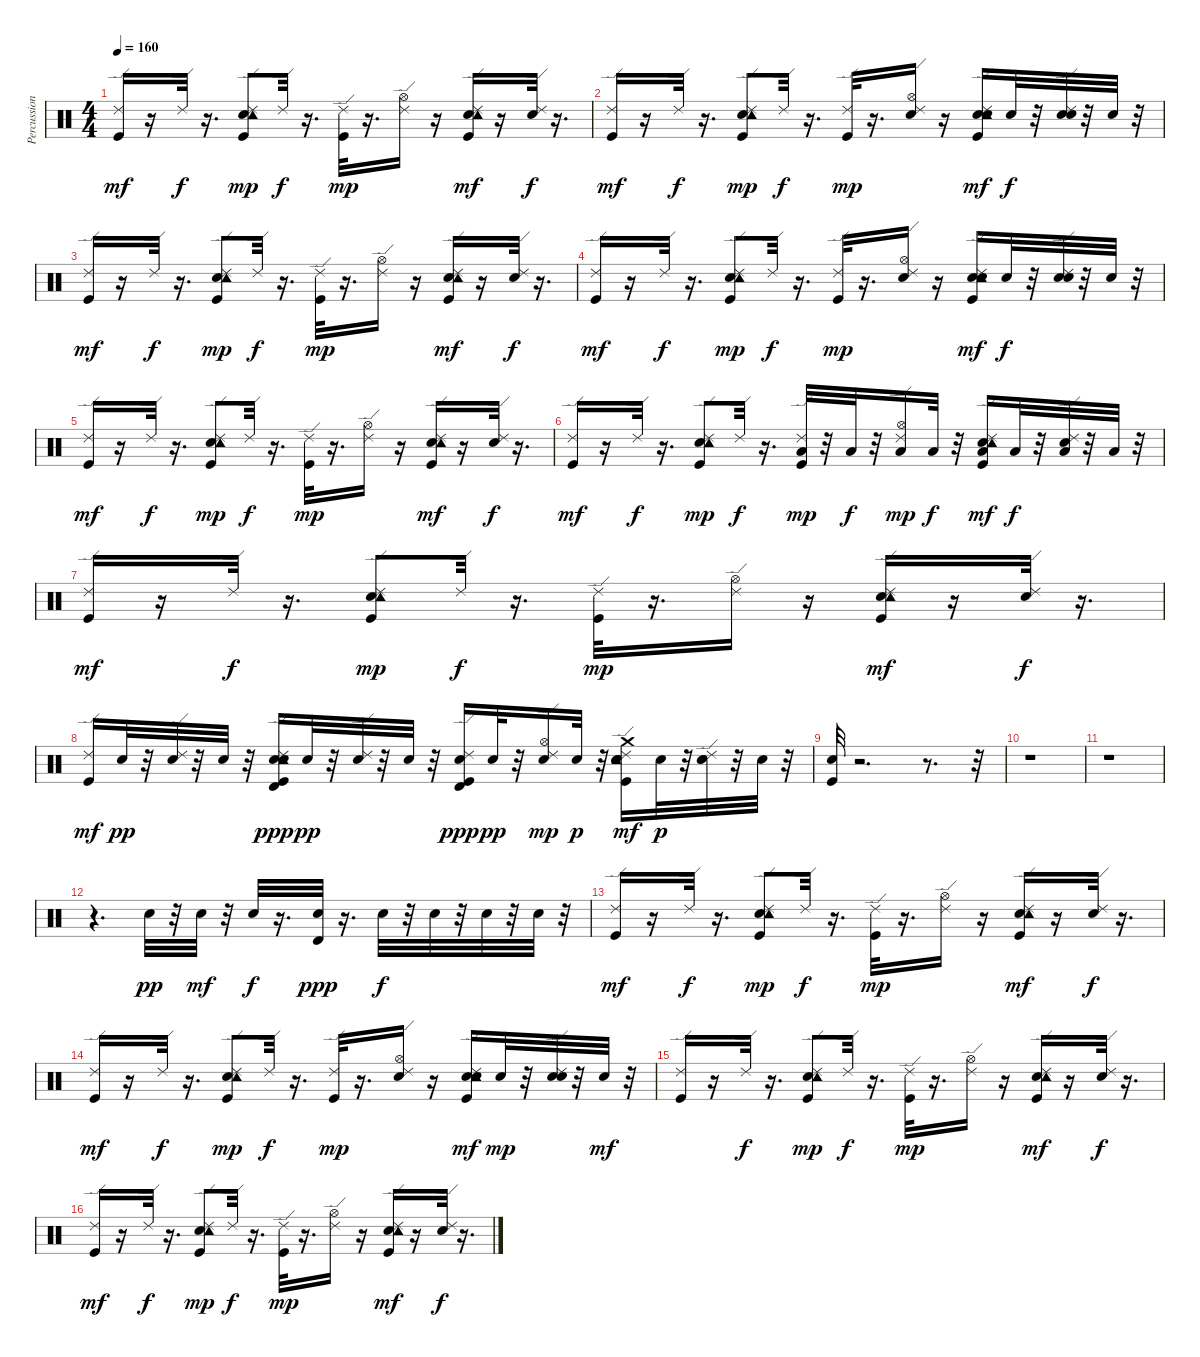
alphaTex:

\track ("Percussion" "Percussion") {instrument percussion}
\staff {score}
\articulation defaults
\ts (4 4)
\tempo 160
\clef neutral
\ks c
("Kick (hit)" "Ride (edge) 2").16{dy mf} r.16 "Ride (edge) 2".32{dy f} r.16{d} ("Kick (hit)" "Electric Snare (hit)" "Tambourine (hit)" "Ride (edge) 2").8{dy mp} "Ride (edge) 2".32{dy f} r.16{d} ("Kick (hit)" "Ride (edge) 2").32{dy mp} r.16{d} ("Hi-Hat (open)" "Ride (edge) 2").16 r.16 ("Kick (hit)" "Electric Snare (hit)" "Tambourine (hit)" "Ride (edge) 2").16{dy mf} r.16 ("Electric Snare (hit)" "Ride (edge) 2").32{dy f} r.16{d} |
("Kick (hit)" "Ride (edge) 2").16{dy mf} r.16 "Ride (edge) 2".32{dy f} r.16{d} ("Kick (hit)" "Electric Snare (hit)" "Tambourine (hit)" "Ride (edge) 2").8{dy mp} "Ride (edge) 2".32{dy f} r.16{d} ("Kick (hit)" "Ride (edge) 2").32{dy mp} r.16{d} ("Snare (hit) 2" "Hi-Hat (open)" "Ride (edge) 2").16 r.16 ("Kick (hit)" "Snare (hit) 2" "Electric Snare (hit)" "Tambourine (hit)" "Ride (edge) 2").16{dy mf} "Snare (hit) 2".32{dy f} r.32 ("Snare (hit) 2" "Electric Snare (hit)" "Ride (edge) 2").32 r.32 "Snare (hit) 2".32 r.32 |
("Kick (hit)" "Ride (edge) 2").16{dy mf} r.16 "Ride (edge) 2".32{dy f} r.16{d} ("Kick (hit)" "Electric Snare (hit)" "Tambourine (hit)" "Ride (edge) 2").8{dy mp} "Ride (edge) 2".32{dy f} r.16{d} ("Kick (hit)" "Ride (edge) 2").32{dy mp} r.16{d} ("Hi-Hat (open)" "Ride (edge) 2").16 r.16 ("Kick (hit)" "Electric Snare (hit)" "Tambourine (hit)" "Ride (edge) 2").16{dy mf} r.16 ("Electric Snare (hit)" "Ride (edge) 2").32{dy f} r.16{d} |
("Kick (hit)" "Ride (edge) 2").16{dy mf} r.16 "Ride (edge) 2".32{dy f} r.16{d} ("Kick (hit)" "Electric Snare (hit)" "Tambourine (hit)" "Ride (edge) 2").8{dy mp} "Ride (edge) 2".32{dy f} r.16{d} ("Kick (hit)" "Ride (edge) 2").32{dy mp} r.16{d} ("Snare (hit) 2" "Hi-Hat (open)" "Ride (edge) 2").16 r.16 ("Kick (hit)" "Snare (hit) 2" "Electric Snare (hit)" "Tambourine (hit)" "Ride (edge) 2").16{dy mf} "Snare (hit) 2".32{dy f} r.32 ("Snare (hit) 2" "Electric Snare (hit)" "Ride (edge) 2").32 r.32 "Snare (hit) 2".32 r.32 |
("Kick (hit)" "Ride (edge) 2").16{dy mf} r.16 "Ride (edge) 2".32{dy f} r.16{d} ("Kick (hit)" "Electric Snare (hit)" "Tambourine (hit)" "Ride (edge) 2").8{dy mp} "Ride (edge) 2".32{dy f} r.16{d} ("Kick (hit)" "Ride (edge) 2").32{dy mp} r.16{d} ("Hi-Hat (open)" "Ride (edge) 2").16 r.16 ("Kick (hit)" "Electric Snare (hit)" "Tambourine (hit)" "Ride (edge) 2").16{dy mf} r.16 ("Electric Snare (hit)" "Ride (edge) 2").32{dy f} r.16{d} |
("Kick (hit)" "Ride (edge) 2").16{dy mf} r.16 "Ride (edge) 2".32{dy f} r.16{d} ("Kick (hit)" "Electric Snare (hit)" "Tambourine (hit)" "Ride (edge) 2").8{dy mp} "Ride (edge) 2".32{dy f} r.16{d} ("Kick (hit)" "Low Floor Tom (hit)" "Ride (edge) 2").32{dy mp} r.32 "Low Floor Tom (hit)".32{dy f} r.32 ("Low Floor Tom (hit)" "Hi-Hat (open)" "Ride (edge) 2").16{dy mp} "Low Floor Tom (hit)".32{dy f} r.32 ("Kick (hit)" "Electric Snare (hit)" "Low Tom (hit)" "Tambourine (hit)" "Ride (edge) 2").16{dy mf} "Low Tom (hit)".32{dy f} r.32 ("Electric Snare (hit)" "Low Tom (hit)" "Ride (edge) 2").32 r.32 "Low Tom (hit)".32 r.32 |
("Kick (hit)" "Ride (edge) 2").16{dy mf} r.16 "Ride (edge) 2".32{dy f} r.16{d} ("Kick (hit)" "Electric Snare (hit)" "Tambourine (hit)" "Ride (edge) 2").8{dy mp} "Ride (edge) 2".32{dy f} r.16{d} ("Kick (hit)" "Ride (edge) 2").32{dy mp} r.16{d} ("Hi-Hat (open)" "Ride (edge) 2").16 r.16 ("Kick (hit)" "Electric Snare (hit)" "Tambourine (hit)" "Ride (edge) 2").16{dy mf} r.16 ("Electric Snare (hit)" "Ride (edge) 2").32{dy f} r.16{d} |
("Kick (hit)" "Ride (edge) 2").16{dy mf} "Snare (hit) 2".32{dy pp} r.32 ("Snare (hit) 2" "Ride (edge) 2").32 r.32 "Snare (hit) 2".32 r.32 ("Kick (hit)" "Snare (hit) 2" "Electric Snare (hit)" "Tambourine (hit)" "Ride (edge) 2" "Timbale high (hit)").16{dy ppp} "Snare (hit) 2".32{dy pp} r.32 ("Snare (hit) 2" "Ride (edge) 2").32 r.32 "Snare (hit) 2".32 r.32 ("Kick (hit)" "Snare (hit) 2" "Ride (edge) 2" "Timbale high (hit)").16{dy ppp} "Snare (hit) 2".32{dy pp} r.32 ("Snare (hit) 2" "Hi-Hat (open)" "Ride (edge) 2").16{dy mp} "Snare (hit) 2".32{dy p} r.32 ("Kick (hit)" "Snare (hit) 2" "Electric Snare (hit)" "Tambourine (hit)" "Crash medium (hit)" "Ride (edge) 2").16{dy mf} "Snare (hit) 2".32{dy p} r.32 ("Snare (hit) 2" "Electric Snare (hit)" "Ride (edge) 2").32 r.32 "Snare (hit) 2".32 r.32 |
("Kick (hit)" "Electric Snare (hit)").32 r.2{d} r.8{d} r.32 |
r.1 |
r.1 |
r.4{d} "Snare (hit) 2".32{dy pp} r.32 "Snare (hit) 2".32{dy mf} r.32 "Snare (hit) 2".32{dy f} r.16{d} ("Snare (hit) 2" "Timbale high (hit)").32{dy ppp} r.16{d} "Snare (hit) 2".32{dy f} r.32 "Snare (hit) 2".32 r.32 "Snare (hit) 2".32 r.32 "Snare (hit) 2".32 r.32 |
("Kick (hit)" "Ride (edge) 2").16{dy mf} r.16 "Ride (edge) 2".32{dy f} r.16{d} ("Kick (hit)" "Electric Snare (hit)" "Tambourine (hit)" "Ride (edge) 2").8{dy mp} "Ride (edge) 2".32{dy f} r.16{d} ("Kick (hit)" "Ride (edge) 2").32{dy mp} r.16{d} ("Hi-Hat (open)" "Ride (edge) 2").16 r.16 ("Kick (hit)" "Electric Snare (hit)" "Tambourine (hit)" "Ride (edge) 2").16{dy mf} r.16 ("Electric Snare (hit)" "Ride (edge) 2").32{dy f} r.16{d} |
("Kick (hit)" "Ride (edge) 2").16{dy mf} r.16 "Ride (edge) 2".32{dy f} r.16{d} ("Kick (hit)" "Electric Snare (hit)" "Tambourine (hit)" "Ride (edge) 2").8{dy mp} "Ride (edge) 2".32{dy f} r.16{d} ("Kick (hit)" "Ride (edge) 2").32{dy mp} r.16{d} ("Snare (hit) 2" "Hi-Hat (open)" "Ride (edge) 2").16 r.16 ("Kick (hit)" "Snare (hit) 2" "Electric Snare (hit)" "Tambourine (hit)" "Ride (edge) 2").16{dy mf} "Snare (hit) 2".32{dy mp} r.32 ("Snare (hit) 2" "Electric Snare (hit)" "Ride (edge) 2").32 r.32 "Snare (hit) 2".32{dy mf} r.32 |
("Kick (hit)" "Ride (edge) 2").16 r.16 "Ride (edge) 2".32{dy f} r.16{d} ("Kick (hit)" "Electric Snare (hit)" "Tambourine (hit)" "Ride (edge) 2").8{dy mp} "Ride (edge) 2".32{dy f} r.16{d} ("Kick (hit)" "Ride (edge) 2").32{dy mp} r.16{d} ("Hi-Hat (open)" "Ride (edge) 2").16 r.16 ("Kick (hit)" "Electric Snare (hit)" "Tambourine (hit)" "Ride (edge) 2").16{dy mf} r.16 ("Electric Snare (hit)" "Ride (edge) 2").32{dy f} r.16{d} |
("Kick (hit)" "Ride (edge) 2").16{dy mf} r.16 "Ride (edge) 2".32{dy f} r.16{d} ("Kick (hit)" "Electric Snare (hit)" "Tambourine (hit)" "Ride (edge) 2").8{dy mp} "Ride (edge) 2".32{dy f} r.16{d} ("Kick (hit)" "Ride (edge) 2").32{dy mp} r.16{d} ("Hi-Hat (open)" "Ride (edge) 2").16 r.16 ("Kick (hit)" "Electric Snare (hit)" "Tambourine (hit)" "Ride (edge) 2").16{dy mf} r.16 ("Electric Snare (hit)" "Ride (edge) 2").32{dy f} r.16{d}
